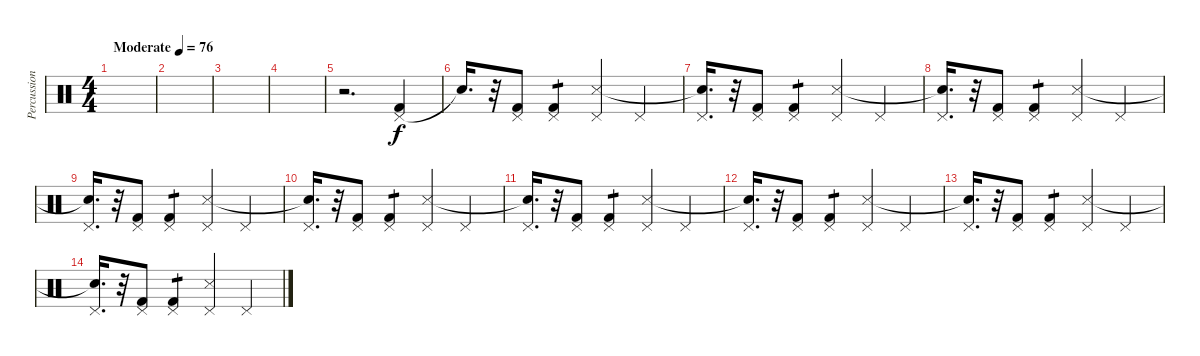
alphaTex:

\track ("Percussion" "Percussion") {instrument percussion}
\staff {score}
\articulation defaults
\ts (4 4)
\tempo (76 "Moderate")
\clef neutral
\ks c
|
|
|
|
r.2{d} ("Pedal Hi-Hat (hit)" "Kick (hit) 2").4 |
"Snare (hit)"{t}.16{d} r.32 ("Pedal Hi-Hat (hit)" "Kick (hit) 2").8 ("Pedal Hi-Hat (hit)" "Kick (hit) 2").4{tp 1} ("Pedal Hi-Hat (hit)" "Snare (side stick) 3").4 "Pedal Hi-Hat (hit)".4 |
("Pedal Hi-Hat (hit)" "Snare (hit)"{t}).16{d} r.32 ("Pedal Hi-Hat (hit)" "Kick (hit) 2").8 ("Pedal Hi-Hat (hit)" "Kick (hit) 2").4{tp 1} ("Pedal Hi-Hat (hit)" "Snare (side stick) 3").4 "Pedal Hi-Hat (hit)".4 |
("Pedal Hi-Hat (hit)" "Snare (hit)"{t}).16{d} r.32 ("Pedal Hi-Hat (hit)" "Kick (hit) 2").8 ("Pedal Hi-Hat (hit)" "Kick (hit) 2").4{tp 1} ("Pedal Hi-Hat (hit)" "Snare (side stick) 3").4 "Pedal Hi-Hat (hit)".4 |
("Pedal Hi-Hat (hit)" "Snare (hit)"{t}).16{d} r.32 ("Pedal Hi-Hat (hit)" "Kick (hit) 2").8 ("Pedal Hi-Hat (hit)" "Kick (hit) 2").4{tp 1} ("Pedal Hi-Hat (hit)" "Snare (side stick) 3").4 "Pedal Hi-Hat (hit)".4 |
("Pedal Hi-Hat (hit)" "Snare (hit)"{t}).16{d} r.32 ("Pedal Hi-Hat (hit)" "Kick (hit) 2").8 ("Pedal Hi-Hat (hit)" "Kick (hit) 2").4{tp 1} ("Pedal Hi-Hat (hit)" "Snare (side stick) 3").4 "Pedal Hi-Hat (hit)".4 |
("Pedal Hi-Hat (hit)" "Snare (hit)"{t}).16{d} r.32 ("Pedal Hi-Hat (hit)" "Kick (hit) 2").8 ("Pedal Hi-Hat (hit)" "Kick (hit) 2").4{tp 1} ("Pedal Hi-Hat (hit)" "Snare (side stick) 3").4 "Pedal Hi-Hat (hit)".4 |
("Pedal Hi-Hat (hit)" "Snare (hit)"{t}).16{d} r.32 ("Pedal Hi-Hat (hit)" "Kick (hit) 2").8 ("Pedal Hi-Hat (hit)" "Kick (hit) 2").4{tp 1} ("Pedal Hi-Hat (hit)" "Snare (side stick) 3").4 "Pedal Hi-Hat (hit)".4 |
("Pedal Hi-Hat (hit)" "Snare (hit)"{t}).16{d} r.32 ("Pedal Hi-Hat (hit)" "Kick (hit) 2").8 ("Pedal Hi-Hat (hit)" "Kick (hit) 2").4{tp 1} ("Pedal Hi-Hat (hit)" "Snare (side stick) 3").4 "Pedal Hi-Hat (hit)".4 |
("Pedal Hi-Hat (hit)" "Snare (hit)"{t}).16{d} r.32 ("Pedal Hi-Hat (hit)" "Kick (hit) 2").8 ("Pedal Hi-Hat (hit)" "Kick (hit) 2").4{tp 1} ("Pedal Hi-Hat (hit)" "Snare (side stick) 3").4 "Pedal Hi-Hat (hit)".4
